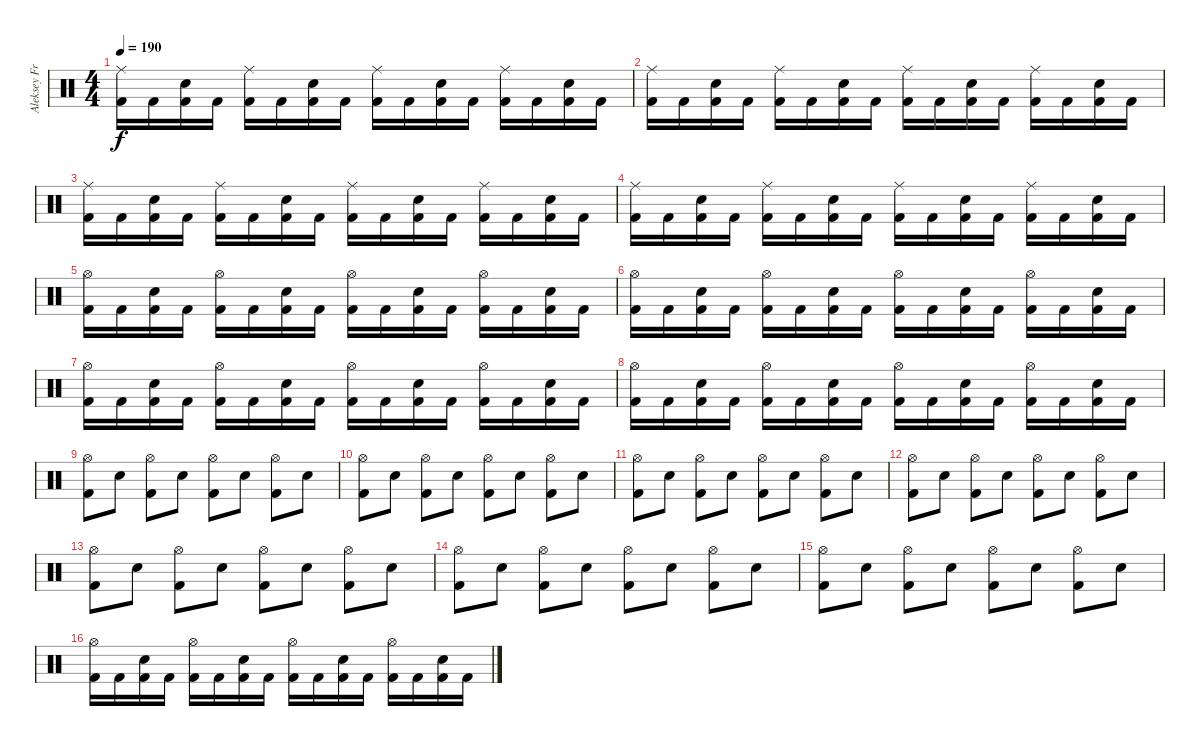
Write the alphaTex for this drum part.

\track ("Aleksey Frolov" "Aleksey Fr") {instrument percussion}
\staff {score}
\articulation defaults
\ts (4 4)
\tempo 190
\clef neutral
\ks c
("Kick (hit) 2" "Ride (middle)").16{dy f} "Kick (hit) 2".16 ("Kick (hit) 2" "Electric Snare (hit)").16 "Kick (hit) 2".16 ("Kick (hit) 2" "Ride (middle)").16 "Kick (hit) 2".16 ("Kick (hit) 2" "Electric Snare (hit)").16 "Kick (hit) 2".16 ("Kick (hit) 2" "Ride (middle)").16 "Kick (hit) 2".16 ("Kick (hit) 2" "Electric Snare (hit)").16 "Kick (hit) 2".16 ("Kick (hit) 2" "Ride (middle)").16 "Kick (hit) 2".16 ("Kick (hit) 2" "Electric Snare (hit)").16 "Kick (hit) 2".16 |
("Kick (hit) 2" "Ride (middle)").16 "Kick (hit) 2".16 ("Kick (hit) 2" "Electric Snare (hit)").16 "Kick (hit) 2".16 ("Kick (hit) 2" "Ride (middle)").16 "Kick (hit) 2".16 ("Kick (hit) 2" "Electric Snare (hit)").16 "Kick (hit) 2".16 ("Kick (hit) 2" "Ride (middle)").16 "Kick (hit) 2".16 ("Kick (hit) 2" "Electric Snare (hit)").16 "Kick (hit) 2".16 ("Kick (hit) 2" "Ride (middle)").16 "Kick (hit) 2".16 ("Kick (hit) 2" "Electric Snare (hit)").16 "Kick (hit) 2".16 |
("Kick (hit) 2" "Ride (middle)").16 "Kick (hit) 2".16 ("Kick (hit) 2" "Electric Snare (hit)").16 "Kick (hit) 2".16 ("Kick (hit) 2" "Ride (middle)").16 "Kick (hit) 2".16 ("Kick (hit) 2" "Electric Snare (hit)").16 "Kick (hit) 2".16 ("Kick (hit) 2" "Ride (middle)").16 "Kick (hit) 2".16 ("Kick (hit) 2" "Electric Snare (hit)").16 "Kick (hit) 2".16 ("Kick (hit) 2" "Ride (middle)").16 "Kick (hit) 2".16 ("Kick (hit) 2" "Electric Snare (hit)").16 "Kick (hit) 2".16 |
("Kick (hit) 2" "Ride (middle)").16 "Kick (hit) 2".16 ("Kick (hit) 2" "Electric Snare (hit)").16 "Kick (hit) 2".16 ("Kick (hit) 2" "Ride (middle)").16 "Kick (hit) 2".16 ("Kick (hit) 2" "Electric Snare (hit)").16 "Kick (hit) 2".16 ("Kick (hit) 2" "Ride (middle)").16 "Kick (hit) 2".16 ("Kick (hit) 2" "Electric Snare (hit)").16 "Kick (hit) 2".16 ("Kick (hit) 2" "Ride (middle)").16 "Kick (hit) 2".16 ("Kick (hit) 2" "Electric Snare (hit)").16 "Kick (hit) 2".16 |
("Kick (hit) 2" "Hi-Hat (open)").16 "Kick (hit) 2".16 ("Kick (hit) 2" "Electric Snare (hit)").16 "Kick (hit) 2".16 ("Kick (hit) 2" "Hi-Hat (open)").16 "Kick (hit) 2".16 ("Kick (hit) 2" "Electric Snare (hit)").16 "Kick (hit) 2".16 ("Kick (hit) 2" "Hi-Hat (open)").16 "Kick (hit) 2".16 ("Kick (hit) 2" "Electric Snare (hit)").16 "Kick (hit) 2".16 ("Kick (hit) 2" "Hi-Hat (open)").16 "Kick (hit) 2".16 ("Kick (hit) 2" "Electric Snare (hit)").16 "Kick (hit) 2".16 |
("Kick (hit) 2" "Hi-Hat (open)").16 "Kick (hit) 2".16 ("Kick (hit) 2" "Electric Snare (hit)").16 "Kick (hit) 2".16 ("Kick (hit) 2" "Hi-Hat (open)").16 "Kick (hit) 2".16 ("Kick (hit) 2" "Electric Snare (hit)").16 "Kick (hit) 2".16 ("Kick (hit) 2" "Hi-Hat (open)").16 "Kick (hit) 2".16 ("Kick (hit) 2" "Electric Snare (hit)").16 "Kick (hit) 2".16 ("Kick (hit) 2" "Hi-Hat (open)").16 "Kick (hit) 2".16 ("Kick (hit) 2" "Electric Snare (hit)").16 "Kick (hit) 2".16 |
("Kick (hit) 2" "Hi-Hat (open)").16 "Kick (hit) 2".16 ("Kick (hit) 2" "Electric Snare (hit)").16 "Kick (hit) 2".16 ("Kick (hit) 2" "Hi-Hat (open)").16 "Kick (hit) 2".16 ("Kick (hit) 2" "Electric Snare (hit)").16 "Kick (hit) 2".16 ("Kick (hit) 2" "Hi-Hat (open)").16 "Kick (hit) 2".16 ("Kick (hit) 2" "Electric Snare (hit)").16 "Kick (hit) 2".16 ("Kick (hit) 2" "Hi-Hat (open)").16 "Kick (hit) 2".16 ("Kick (hit) 2" "Electric Snare (hit)").16 "Kick (hit) 2".16 |
("Kick (hit) 2" "Hi-Hat (open)").16 "Kick (hit) 2".16 ("Kick (hit) 2" "Electric Snare (hit)").16 "Kick (hit) 2".16 ("Kick (hit) 2" "Hi-Hat (open)").16 "Kick (hit) 2".16 ("Kick (hit) 2" "Electric Snare (hit)").16 "Kick (hit) 2".16 ("Kick (hit) 2" "Hi-Hat (open)").16 "Kick (hit) 2".16 ("Kick (hit) 2" "Electric Snare (hit)").16 "Kick (hit) 2".16 ("Kick (hit) 2" "Hi-Hat (open)").16 "Kick (hit) 2".16 ("Kick (hit) 2" "Electric Snare (hit)").16 "Kick (hit) 2".16 |
("Kick (hit) 2" "Hi-Hat (open)").8 "Electric Snare (hit)".8 ("Kick (hit) 2" "Hi-Hat (open)").8 "Electric Snare (hit)".8 ("Kick (hit) 2" "Hi-Hat (open)").8 "Electric Snare (hit)".8 ("Kick (hit) 2" "Hi-Hat (open)").8 "Electric Snare (hit)".8 |
("Kick (hit) 2" "Hi-Hat (open)").8 "Electric Snare (hit)".8 ("Kick (hit) 2" "Hi-Hat (open)").8 "Electric Snare (hit)".8 ("Kick (hit) 2" "Hi-Hat (open)").8 "Electric Snare (hit)".8 ("Kick (hit) 2" "Hi-Hat (open)").8 "Electric Snare (hit)".8 |
("Kick (hit) 2" "Hi-Hat (open)").8 "Electric Snare (hit)".8 ("Kick (hit) 2" "Hi-Hat (open)").8 "Electric Snare (hit)".8 ("Kick (hit) 2" "Hi-Hat (open)").8 "Electric Snare (hit)".8 ("Kick (hit) 2" "Hi-Hat (open)").8 "Electric Snare (hit)".8 |
("Kick (hit) 2" "Hi-Hat (open)").8 "Electric Snare (hit)".8 ("Kick (hit) 2" "Hi-Hat (open)").8 "Electric Snare (hit)".8 ("Kick (hit) 2" "Hi-Hat (open)").8 "Electric Snare (hit)".8 ("Kick (hit) 2" "Hi-Hat (open)").8 "Electric Snare (hit)".8 |
("Kick (hit) 2" "Hi-Hat (open)").8 "Electric Snare (hit)".8 ("Kick (hit) 2" "Hi-Hat (open)").8 "Electric Snare (hit)".8 ("Kick (hit) 2" "Hi-Hat (open)").8 "Electric Snare (hit)".8 ("Kick (hit) 2" "Hi-Hat (open)").8 "Electric Snare (hit)".8 |
("Kick (hit) 2" "Hi-Hat (open)").8 "Electric Snare (hit)".8 ("Kick (hit) 2" "Hi-Hat (open)").8 "Electric Snare (hit)".8 ("Kick (hit) 2" "Hi-Hat (open)").8 "Electric Snare (hit)".8 ("Kick (hit) 2" "Hi-Hat (open)").8 "Electric Snare (hit)".8 |
("Kick (hit) 2" "Hi-Hat (open)").8 "Electric Snare (hit)".8 ("Kick (hit) 2" "Hi-Hat (open)").8 "Electric Snare (hit)".8 ("Kick (hit) 2" "Hi-Hat (open)").8 "Electric Snare (hit)".8 ("Kick (hit) 2" "Hi-Hat (open)").8 "Electric Snare (hit)".8 |
("Kick (hit) 2" "Hi-Hat (open)").16 "Kick (hit) 2".16 ("Kick (hit) 2" "Electric Snare (hit)").16 "Kick (hit) 2".16 ("Kick (hit) 2" "Hi-Hat (open)").16 "Kick (hit) 2".16 ("Kick (hit) 2" "Electric Snare (hit)").16 "Kick (hit) 2".16 ("Kick (hit) 2" "Hi-Hat (open)").16 "Kick (hit) 2".16 ("Kick (hit) 2" "Electric Snare (hit)").16 "Kick (hit) 2".16 ("Kick (hit) 2" "Hi-Hat (open)").16 "Kick (hit) 2".16 ("Kick (hit) 2" "Electric Snare (hit)").16 "Kick (hit) 2".16
